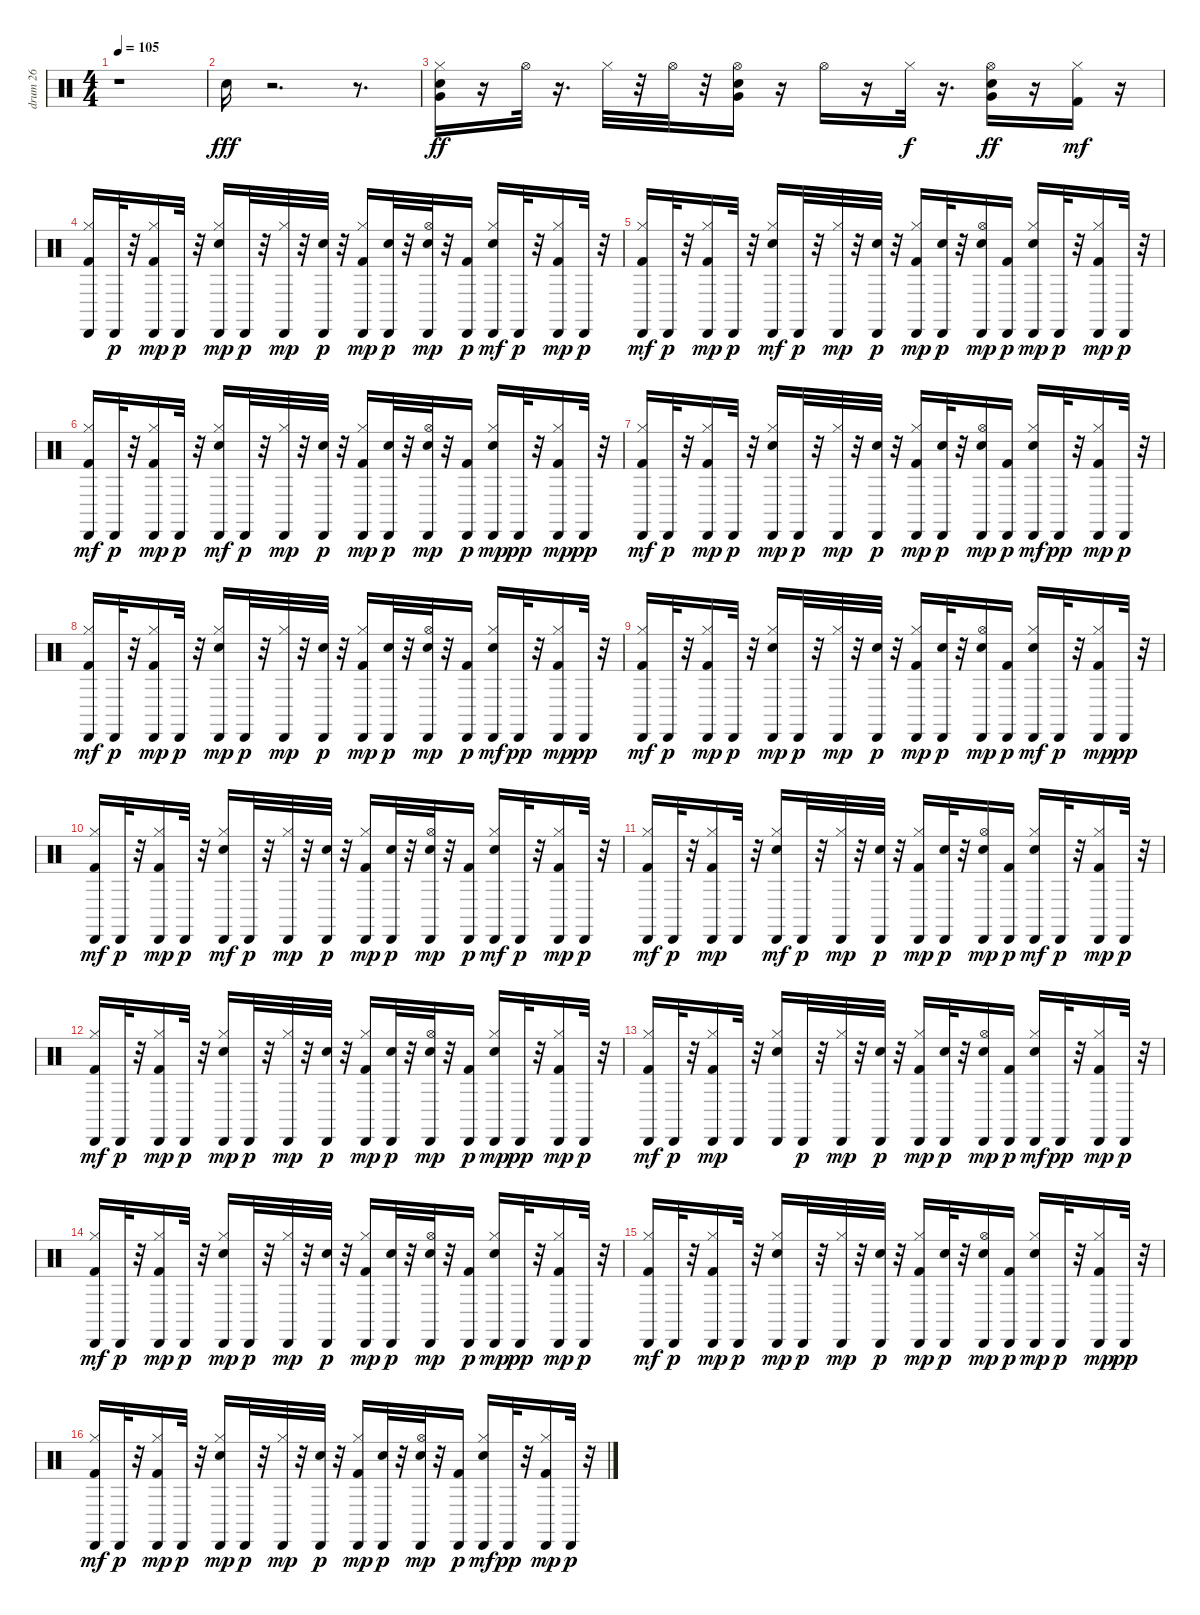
\track ("drum 26" "drum 26") {instrument percussion}
\staff {score}
\articulation defaults
\ts (4 4)
\tempo 105
\clef neutral
\ks c
r.1{dy mf} |
"Snare (hit) 2".16{dy fff} r.2{d} r.8{d} |
("Snare (hit) 2" "Hi-Hat (closed)" "Very Low Tom (hit)").16{dy ff} r.16 "Hi-Hat (open)".32 r.16{d} "Hi-Hat (closed)".32 r.32 "Hi-Hat (open)".32 r.32 ("Snare (hit) 2" "Very Low Tom (hit)" "Hi-Hat (open)").16 r.16 "Hi-Hat (open)".16 r.16 "Hi-Hat (closed)".32{dy f} r.16{d} ("Snare (hit) 2" "Very Low Tom (hit)" "Hi-Hat (open)").16{dy ff} r.16 ("Kick (hit) 2" "Hi-Hat (closed)").16{dy mf} r.16 |
("Kick (hit) 2" "Hi-Hat (closed)" "Cabasa (hit)").16 "Cabasa (hit)".32{dy p} r.32 ("Kick (hit) 2" "Hi-Hat (closed)" "Cabasa (hit)").16{dy mp} "Cabasa (hit)".32{dy p} r.32 ("Snare (hit) 2" "Hi-Hat (closed)" "Cabasa (hit)").16{dy mp} "Cabasa (hit)".32{dy p} r.32 ("Hi-Hat (closed)" "Cabasa (hit)").32{dy mp} r.32 ("Electric Snare (hit)" "Cabasa (hit)").32{dy p} r.32 ("Kick (hit) 2" "Hi-Hat (closed)" "Cabasa (hit)").16{dy mp} ("Electric Snare (hit)" "Cabasa (hit)").32{dy p} r.32 ("Electric Snare (hit)" "Hi-Hat (open)" "Cabasa (hit)").32{dy mp} r.32 ("Kick (hit) 2" "Cabasa (hit)").16{dy p} ("Snare (hit) 2" "Hi-Hat (closed)" "Cabasa (hit)").16{dy mf} "Cabasa (hit)".32{dy p} r.32 ("Kick (hit) 2" "Hi-Hat (closed)" "Cabasa (hit)").16{dy mp} "Cabasa (hit)".32{dy p} r.32 |
("Kick (hit) 2" "Hi-Hat (closed)" "Cabasa (hit)").16{dy mf} "Cabasa (hit)".32{dy p} r.32 ("Kick (hit) 2" "Hi-Hat (closed)" "Cabasa (hit)").16{dy mp} "Cabasa (hit)".32{dy p} r.32 ("Snare (hit) 2" "Hi-Hat (closed)" "Cabasa (hit)").16{dy mf} "Cabasa (hit)".32{dy p} r.32 ("Hi-Hat (closed)" "Cabasa (hit)").32{dy mp} r.32 ("Electric Snare (hit)" "Cabasa (hit)").32{dy p} r.32 ("Kick (hit) 2" "Hi-Hat (closed)" "Cabasa (hit)").16{dy mp} ("Electric Snare (hit)" "Cabasa (hit)").32{dy p} r.32 ("Electric Snare (hit)" "Hi-Hat (open)" "Cabasa (hit)").16{dy mp} ("Kick (hit) 2" "Cabasa (hit)").16{dy p} ("Snare (hit) 2" "Hi-Hat (closed)" "Cabasa (hit)").16{dy mp} "Cabasa (hit)".32{dy p} r.32 ("Kick (hit) 2" "Hi-Hat (closed)" "Cabasa (hit)").16{dy mp} "Cabasa (hit)".32{dy p} r.32 |
("Kick (hit) 2" "Hi-Hat (closed)" "Cabasa (hit)").16{dy mf} "Cabasa (hit)".32{dy p} r.32 ("Kick (hit) 2" "Hi-Hat (closed)" "Cabasa (hit)").16{dy mp} "Cabasa (hit)".32{dy p} r.32 ("Snare (hit) 2" "Hi-Hat (closed)" "Cabasa (hit)").16{dy mf} "Cabasa (hit)".32{dy p} r.32 ("Hi-Hat (closed)" "Cabasa (hit)").32{dy mp} r.32 ("Electric Snare (hit)" "Cabasa (hit)").32{dy p} r.32 ("Kick (hit) 2" "Hi-Hat (closed)" "Cabasa (hit)").16{dy mp} ("Electric Snare (hit)" "Cabasa (hit)").32{dy p} r.32 ("Electric Snare (hit)" "Hi-Hat (open)" "Cabasa (hit)").32{dy mp} r.32 ("Kick (hit) 2" "Cabasa (hit)").16{dy p} ("Snare (hit) 2" "Hi-Hat (closed)" "Cabasa (hit)").16{dy mp} "Cabasa (hit)".32{dy pp} r.32 ("Kick (hit) 2" "Hi-Hat (closed)" "Cabasa (hit)").16{dy mp} "Cabasa (hit)".32{dy pp} r.32 |
("Kick (hit) 2" "Hi-Hat (closed)" "Cabasa (hit)").16{dy mf} "Cabasa (hit)".32{dy p} r.32 ("Kick (hit) 2" "Hi-Hat (closed)" "Cabasa (hit)").16{dy mp} "Cabasa (hit)".32{dy p} r.32 ("Snare (hit) 2" "Hi-Hat (closed)" "Cabasa (hit)").16{dy mp} "Cabasa (hit)".32{dy p} r.32 ("Hi-Hat (closed)" "Cabasa (hit)").32{dy mp} r.32 ("Electric Snare (hit)" "Cabasa (hit)").32{dy p} r.32 ("Kick (hit) 2" "Hi-Hat (closed)" "Cabasa (hit)").16{dy mp} ("Electric Snare (hit)" "Cabasa (hit)").32{dy p} r.32 ("Electric Snare (hit)" "Hi-Hat (open)" "Cabasa (hit)").16{dy mp} ("Kick (hit) 2" "Cabasa (hit)").16{dy p} ("Snare (hit) 2" "Hi-Hat (closed)" "Cabasa (hit)").16{dy mf} "Cabasa (hit)".32{dy pp} r.32 ("Kick (hit) 2" "Hi-Hat (closed)" "Cabasa (hit)").16{dy mp} "Cabasa (hit)".32{dy p} r.32 |
("Kick (hit) 2" "Hi-Hat (closed)" "Cabasa (hit)").16{dy mf} "Cabasa (hit)".32{dy p} r.32 ("Kick (hit) 2" "Hi-Hat (closed)" "Cabasa (hit)").16{dy mp} "Cabasa (hit)".32{dy p} r.32 ("Snare (hit) 2" "Hi-Hat (closed)" "Cabasa (hit)").16{dy mp} "Cabasa (hit)".32{dy p} r.32 ("Hi-Hat (closed)" "Cabasa (hit)").32{dy mp} r.32 ("Electric Snare (hit)" "Cabasa (hit)").32{dy p} r.32 ("Kick (hit) 2" "Hi-Hat (closed)" "Cabasa (hit)").16{dy mp} ("Electric Snare (hit)" "Cabasa (hit)").32{dy p} r.32 ("Electric Snare (hit)" "Hi-Hat (open)" "Cabasa (hit)").32{dy mp} r.32 ("Kick (hit) 2" "Cabasa (hit)").16{dy p} ("Snare (hit) 2" "Hi-Hat (closed)" "Cabasa (hit)").16{dy mf} "Cabasa (hit)".32{dy pp} r.32 ("Kick (hit) 2" "Hi-Hat (closed)" "Cabasa (hit)").16{dy mp} "Cabasa (hit)".32{dy pp} r.32 |
("Kick (hit) 2" "Hi-Hat (closed)" "Cabasa (hit)").16{dy mf} "Cabasa (hit)".32{dy p} r.32 ("Kick (hit) 2" "Hi-Hat (closed)" "Cabasa (hit)").16{dy mp} "Cabasa (hit)".32{dy p} r.32 ("Snare (hit) 2" "Hi-Hat (closed)" "Cabasa (hit)").16{dy mp} "Cabasa (hit)".32{dy p} r.32 ("Hi-Hat (closed)" "Cabasa (hit)").32{dy mp} r.32 ("Electric Snare (hit)" "Cabasa (hit)").32{dy p} r.32 ("Kick (hit) 2" "Hi-Hat (closed)" "Cabasa (hit)").16{dy mp} ("Electric Snare (hit)" "Cabasa (hit)").32{dy p} r.32 ("Electric Snare (hit)" "Hi-Hat (open)" "Cabasa (hit)").16{dy mp} ("Kick (hit) 2" "Cabasa (hit)").16{dy p} ("Snare (hit) 2" "Hi-Hat (closed)" "Cabasa (hit)").16{dy mf} "Cabasa (hit)".32{dy p} r.32 ("Kick (hit) 2" "Hi-Hat (closed)" "Cabasa (hit)").16{dy mp} "Cabasa (hit)".32{dy pp} r.32 |
("Kick (hit) 2" "Hi-Hat (closed)" "Cabasa (hit)").16{dy mf} "Cabasa (hit)".32{dy p} r.32 ("Kick (hit) 2" "Hi-Hat (closed)" "Cabasa (hit)").16{dy mp} "Cabasa (hit)".32{dy p} r.32 ("Snare (hit) 2" "Hi-Hat (closed)" "Cabasa (hit)").16{dy mf} "Cabasa (hit)".32{dy p} r.32 ("Hi-Hat (closed)" "Cabasa (hit)").32{dy mp} r.32 ("Electric Snare (hit)" "Cabasa (hit)").32{dy p} r.32 ("Kick (hit) 2" "Hi-Hat (closed)" "Cabasa (hit)").16{dy mp} ("Electric Snare (hit)" "Cabasa (hit)").32{dy p} r.32 ("Electric Snare (hit)" "Hi-Hat (open)" "Cabasa (hit)").32{dy mp} r.32 ("Kick (hit) 2" "Cabasa (hit)").16{dy p} ("Snare (hit) 2" "Hi-Hat (closed)" "Cabasa (hit)").16{dy mf} "Cabasa (hit)".32{dy p} r.32 ("Kick (hit) 2" "Hi-Hat (closed)" "Cabasa (hit)").16{dy mp} "Cabasa (hit)".32{dy p} r.32 |
("Kick (hit) 2" "Hi-Hat (closed)" "Cabasa (hit)").16{dy mf} "Cabasa (hit)".32{dy p} r.32 ("Kick (hit) 2" "Hi-Hat (closed)" "Cabasa (hit)").16{dy mp} "Cabasa (hit)".32 r.32 ("Snare (hit) 2" "Hi-Hat (closed)" "Cabasa (hit)").16{dy mf} "Cabasa (hit)".32{dy p} r.32 ("Hi-Hat (closed)" "Cabasa (hit)").32{dy mp} r.32 ("Electric Snare (hit)" "Cabasa (hit)").32{dy p} r.32 ("Kick (hit) 2" "Hi-Hat (closed)" "Cabasa (hit)").16{dy mp} ("Electric Snare (hit)" "Cabasa (hit)").32{dy p} r.32 ("Electric Snare (hit)" "Hi-Hat (open)" "Cabasa (hit)").16{dy mp} ("Kick (hit) 2" "Cabasa (hit)").16{dy p} ("Snare (hit) 2" "Hi-Hat (closed)" "Cabasa (hit)").16{dy mf} "Cabasa (hit)".32{dy p} r.32 ("Kick (hit) 2" "Hi-Hat (closed)" "Cabasa (hit)").16{dy mp} "Cabasa (hit)".32{dy p} r.32 |
("Kick (hit) 2" "Hi-Hat (closed)" "Cabasa (hit)").16{dy mf} "Cabasa (hit)".32{dy p} r.32 ("Kick (hit) 2" "Hi-Hat (closed)" "Cabasa (hit)").16{dy mp} "Cabasa (hit)".32{dy p} r.32 ("Snare (hit) 2" "Hi-Hat (closed)" "Cabasa (hit)").16{dy mp} "Cabasa (hit)".32{dy p} r.32 ("Hi-Hat (closed)" "Cabasa (hit)").32{dy mp} r.32 ("Electric Snare (hit)" "Cabasa (hit)").32{dy p} r.32 ("Kick (hit) 2" "Hi-Hat (closed)" "Cabasa (hit)").16{dy mp} ("Electric Snare (hit)" "Cabasa (hit)").32{dy p} r.32 ("Electric Snare (hit)" "Hi-Hat (open)" "Cabasa (hit)").32{dy mp} r.32 ("Kick (hit) 2" "Cabasa (hit)").16{dy p} ("Snare (hit) 2" "Hi-Hat (closed)" "Cabasa (hit)").16{dy mp} "Cabasa (hit)".32{dy pp} r.32 ("Kick (hit) 2" "Hi-Hat (closed)" "Cabasa (hit)").16{dy mp} "Cabasa (hit)".32{dy p} r.32 |
("Kick (hit) 2" "Hi-Hat (closed)" "Cabasa (hit)").16{dy mf} "Cabasa (hit)".32{dy p} r.32 ("Kick (hit) 2" "Hi-Hat (closed)" "Cabasa (hit)").16{dy mp} "Cabasa (hit)".32 r.32 ("Snare (hit) 2" "Hi-Hat (closed)" "Cabasa (hit)").16 "Cabasa (hit)".32{dy p} r.32 ("Hi-Hat (closed)" "Cabasa (hit)").32{dy mp} r.32 ("Electric Snare (hit)" "Cabasa (hit)").32{dy p} r.32 ("Kick (hit) 2" "Hi-Hat (closed)" "Cabasa (hit)").16{dy mp} ("Electric Snare (hit)" "Cabasa (hit)").32{dy p} r.32 ("Electric Snare (hit)" "Hi-Hat (open)" "Cabasa (hit)").16{dy mp} ("Kick (hit) 2" "Cabasa (hit)").16{dy p} ("Snare (hit) 2" "Hi-Hat (closed)" "Cabasa (hit)").16{dy mf} "Cabasa (hit)".32{dy pp} r.32 ("Kick (hit) 2" "Hi-Hat (closed)" "Cabasa (hit)").16{dy mp} "Cabasa (hit)".32{dy p} r.32 |
("Kick (hit) 2" "Hi-Hat (closed)" "Cabasa (hit)").16{dy mf} "Cabasa (hit)".32{dy p} r.32 ("Kick (hit) 2" "Hi-Hat (closed)" "Cabasa (hit)").16{dy mp} "Cabasa (hit)".32{dy p} r.32 ("Snare (hit) 2" "Hi-Hat (closed)" "Cabasa (hit)").16{dy mp} "Cabasa (hit)".32{dy p} r.32 ("Hi-Hat (closed)" "Cabasa (hit)").32{dy mp} r.32 ("Electric Snare (hit)" "Cabasa (hit)").32{dy p} r.32 ("Kick (hit) 2" "Hi-Hat (closed)" "Cabasa (hit)").16{dy mp} ("Electric Snare (hit)" "Cabasa (hit)").32{dy p} r.32 ("Electric Snare (hit)" "Hi-Hat (open)" "Cabasa (hit)").32{dy mp} r.32 ("Kick (hit) 2" "Cabasa (hit)").16{dy p} ("Snare (hit) 2" "Hi-Hat (closed)" "Cabasa (hit)").16{dy mp} "Cabasa (hit)".32{dy pp} r.32 ("Kick (hit) 2" "Hi-Hat (closed)" "Cabasa (hit)").16{dy mp} "Cabasa (hit)".32{dy p} r.32 |
("Kick (hit) 2" "Hi-Hat (closed)" "Cabasa (hit)").16{dy mf} "Cabasa (hit)".32{dy p} r.32 ("Kick (hit) 2" "Hi-Hat (closed)" "Cabasa (hit)").16{dy mp} "Cabasa (hit)".32{dy p} r.32 ("Snare (hit) 2" "Hi-Hat (closed)" "Cabasa (hit)").16{dy mp} "Cabasa (hit)".32{dy p} r.32 ("Hi-Hat (closed)" "Cabasa (hit)").32{dy mp} r.32 ("Electric Snare (hit)" "Cabasa (hit)").32{dy p} r.32 ("Kick (hit) 2" "Hi-Hat (closed)" "Cabasa (hit)").16{dy mp} ("Electric Snare (hit)" "Cabasa (hit)").32{dy p} r.32 ("Electric Snare (hit)" "Hi-Hat (open)" "Cabasa (hit)").16{dy mp} ("Kick (hit) 2" "Cabasa (hit)").16{dy p} ("Snare (hit) 2" "Hi-Hat (closed)" "Cabasa (hit)").16{dy mp} "Cabasa (hit)".32{dy p} r.32 ("Kick (hit) 2" "Hi-Hat (closed)" "Cabasa (hit)").16{dy mp} "Cabasa (hit)".32{dy pp} r.32 |
("Kick (hit) 2" "Hi-Hat (closed)" "Cabasa (hit)").16{dy mf} "Cabasa (hit)".32{dy p} r.32 ("Kick (hit) 2" "Hi-Hat (closed)" "Cabasa (hit)").16{dy mp} "Cabasa (hit)".32{dy p} r.32 ("Snare (hit) 2" "Hi-Hat (closed)" "Cabasa (hit)").16{dy mp} "Cabasa (hit)".32{dy p} r.32 ("Hi-Hat (closed)" "Cabasa (hit)").32{dy mp} r.32 ("Electric Snare (hit)" "Cabasa (hit)").32{dy p} r.32 ("Kick (hit) 2" "Hi-Hat (closed)" "Cabasa (hit)").16{dy mp} ("Electric Snare (hit)" "Cabasa (hit)").32{dy p} r.32 ("Electric Snare (hit)" "Hi-Hat (open)" "Cabasa (hit)").32{dy mp} r.32 ("Kick (hit) 2" "Cabasa (hit)").16{dy p} ("Snare (hit) 2" "Hi-Hat (closed)" "Cabasa (hit)").16{dy mf} "Cabasa (hit)".32{dy pp} r.32 ("Kick (hit) 2" "Hi-Hat (closed)" "Cabasa (hit)").16{dy mp} "Cabasa (hit)".32{dy p} r.32
